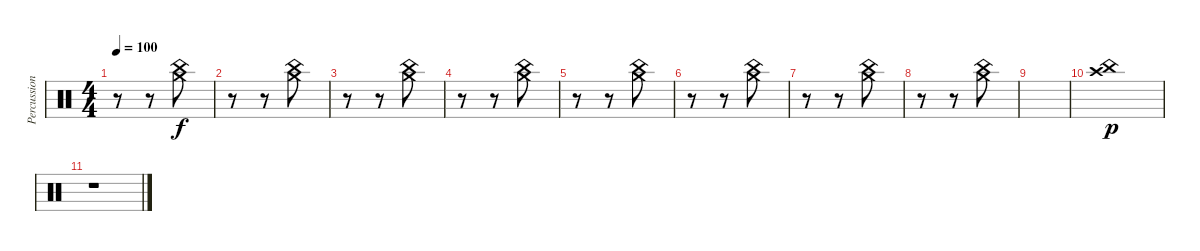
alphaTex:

\track ("Percussion" "Percussion") {instrument percussion}
\staff {score}
\articulation defaults
\ts (4 4)
\tempo 100
\clef neutral
\ks c
r.8{dy f} r.8 ("Crash medium (hit)" "China (hit)").8 |
r.8 r.8 ("Crash medium (hit)" "China (hit)").8 |
r.8 r.8 ("Crash medium (hit)" "China (hit)").8 |
r.8 r.8 ("Crash medium (hit)" "China (hit)").8 |
r.8 r.8 ("Crash medium (hit)" "China (hit)").8 |
r.8 r.8 ("Crash medium (hit)" "China (hit)").8 |
r.8 r.8 ("Crash medium (hit)" "China (hit)").8 |
r.8 r.8 ("Crash medium (hit)" "China (hit)").8 |
|
("China (hit)" "Crash high (hit)").1{dy p} |
r.1
